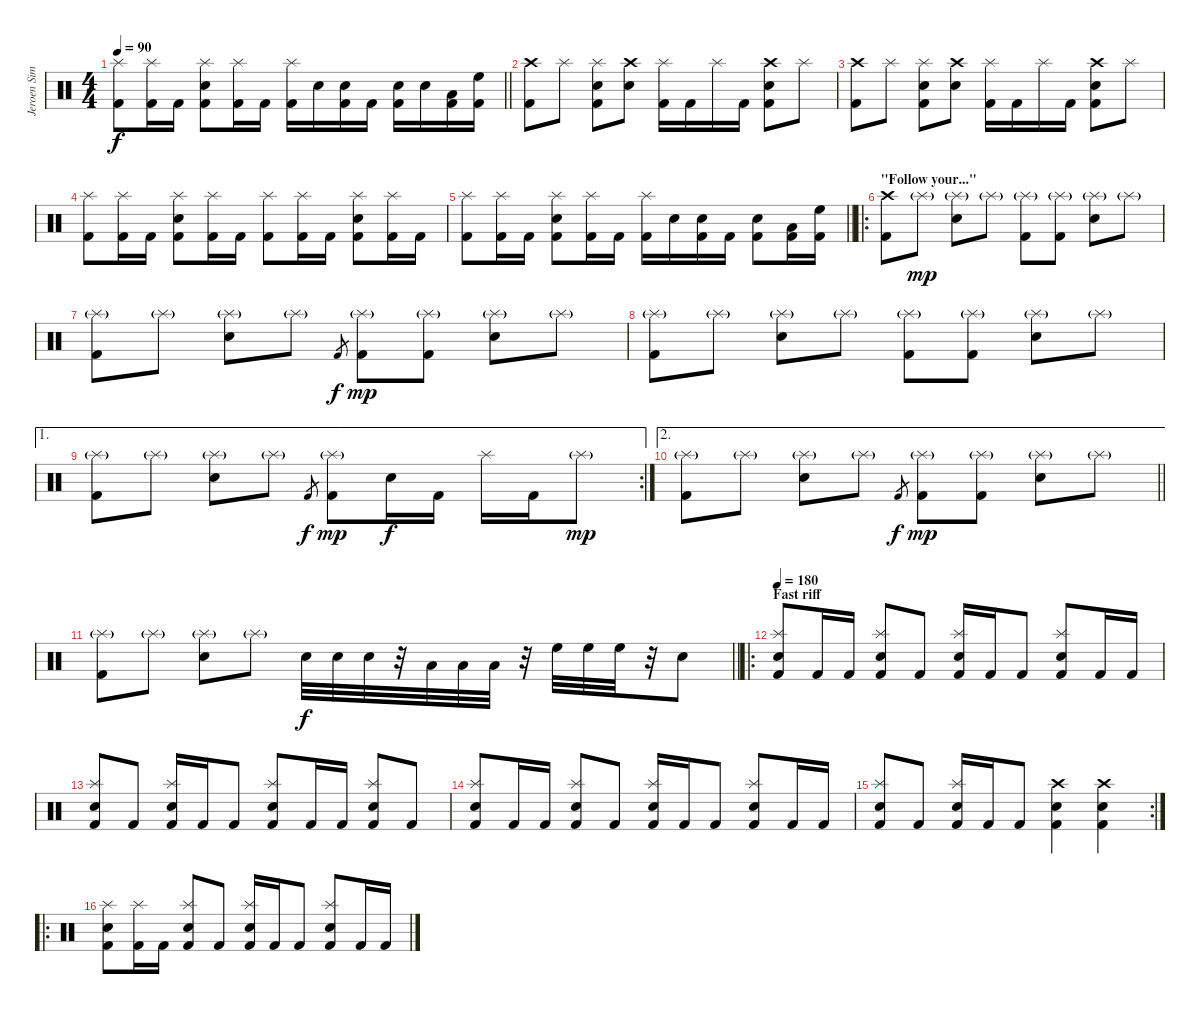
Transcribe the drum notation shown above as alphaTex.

\track ("Jeroen Simons" "Jeroen Sim") {instrument percussion}
\staff {score}
\articulation defaults
\ts (4 4)
\tempo 90
\clef neutral
\barLineRight lightlight
\ks c
("Kick (hit) 2" "Splash (hit)").8{dy f} ("Kick (hit) 2" "Splash (hit)").16 "Kick (hit) 2".16 ("Kick (hit) 2" "Snare (hit) 2" "Splash (hit)").8 ("Kick (hit) 2" "Splash (hit)").16 "Kick (hit) 2".16 ("Kick (hit) 2" "Splash (hit)").16 "Snare (hit) 2".16 ("Kick (hit) 2" "Snare (hit) 2").16 "Kick (hit) 2".16 ("Kick (hit) 2" "Snare (hit) 2").16 "Snare (hit) 2".16 ("Kick (hit) 2" "Low Tom (hit)").16 ("Kick (hit) 2" "High Floor Tom (hit)").16 |
("Kick (hit) 2" "Crash high (hit)").8 "Splash (hit)".8 ("Kick (hit) 2" "Snare (hit) 2" "Splash (hit)").8 ("Snare (hit) 2" "Crash high (hit)").8 ("Kick (hit) 2" "Splash (hit)").16 "Kick (hit) 2".16 "Splash (hit)".16 "Kick (hit) 2".16 ("Kick (hit) 2" "Snare (hit) 2" "Crash high (hit)").8 "Splash (hit)".8 |
("Kick (hit) 2" "Crash high (hit)").8 "Splash (hit)".8 ("Kick (hit) 2" "Snare (hit) 2" "Splash (hit)").8 ("Snare (hit) 2" "Crash high (hit)").8 ("Kick (hit) 2" "Splash (hit)").16 "Kick (hit) 2".16 "Splash (hit)".16 "Kick (hit) 2".16 ("Kick (hit) 2" "Snare (hit) 2" "Crash high (hit)").8 "Splash (hit)".8 |
("Kick (hit) 2" "Splash (hit)").8 ("Kick (hit) 2" "Splash (hit)").16 "Kick (hit) 2".16 ("Kick (hit) 2" "Snare (hit) 2" "Splash (hit)").8 ("Kick (hit) 2" "Splash (hit)").16 "Kick (hit) 2".16 ("Kick (hit) 2" "Splash (hit)").8 ("Kick (hit) 2" "Splash (hit)").16 "Kick (hit) 2".16 ("Kick (hit) 2" "Snare (hit) 2" "Splash (hit)").8 ("Kick (hit) 2" "Splash (hit)").16 "Kick (hit) 2".16 |
\barLineRight lightlight
("Kick (hit) 2" "Splash (hit)").8 ("Kick (hit) 2" "Splash (hit)").16 "Kick (hit) 2".16 ("Kick (hit) 2" "Snare (hit) 2" "Splash (hit)").8 ("Kick (hit) 2" "Splash (hit)").16 "Kick (hit) 2".16 ("Kick (hit) 2" "Splash (hit)").16 "Snare (hit) 2".16 ("Kick (hit) 2" "Snare (hit) 2").16 "Kick (hit) 2".16 ("Kick (hit) 2" "Snare (hit) 2").8 ("Kick (hit) 2" "Low Tom (hit)").16 ("Kick (hit) 2" "High Floor Tom (hit)").16 |
\ro
\section ("" "\"Follow your...\"")
("Kick (hit) 2" "Crash high (hit)").8 "Splash (hit)"{g}.8{dy mp} ("Snare (hit) 2" "Splash (hit)"{g}).8 "Splash (hit)"{g}.8 ("Kick (hit) 2" "Splash (hit)"{g}).8 ("Kick (hit) 2" "Splash (hit)"{g}).8 ("Snare (hit) 2" "Splash (hit)"{g}).8 "Splash (hit)"{g}.8 |
("Kick (hit) 2" "Splash (hit)"{g}).8 "Splash (hit)"{g}.8 ("Snare (hit) 2" "Splash (hit)"{g}).8 "Splash (hit)"{g}.8 "Kick (hit) 2".8{gr dy f} ("Kick (hit) 2" "Splash (hit)"{g}).8{dy mp} ("Kick (hit) 2" "Splash (hit)"{g}).8 ("Snare (hit) 2" "Splash (hit)"{g}).8 "Splash (hit)"{g}.8 |
("Kick (hit) 2" "Splash (hit)"{g}).8 "Splash (hit)"{g}.8 ("Snare (hit) 2" "Splash (hit)"{g}).8 "Splash (hit)"{g}.8 ("Kick (hit) 2" "Splash (hit)"{g}).8 ("Kick (hit) 2" "Splash (hit)"{g}).8 ("Snare (hit) 2" "Splash (hit)"{g}).8 "Splash (hit)"{g}.8 |
\ae 1
\rc 2
("Kick (hit) 2" "Splash (hit)"{g}).8 "Splash (hit)"{g}.8 ("Snare (hit) 2" "Splash (hit)"{g}).8 "Splash (hit)"{g}.8 "Kick (hit) 2".8{gr dy f} ("Kick (hit) 2" "Splash (hit)"{g}).8{dy mp} "Snare (hit) 2".16{dy f} "Kick (hit) 2".16 "Splash (hit)".16 "Kick (hit) 2".16 "Splash (hit)"{g}.8{dy mp} |
\ae 2
\barLineRight lightlight
("Kick (hit) 2" "Splash (hit)"{g}).8 "Splash (hit)"{g}.8 ("Snare (hit) 2" "Splash (hit)"{g}).8 "Splash (hit)"{g}.8 "Kick (hit) 2".8{gr dy f} ("Kick (hit) 2" "Splash (hit)"{g}).8{dy mp} ("Kick (hit) 2" "Splash (hit)"{g}).8 ("Snare (hit) 2" "Splash (hit)"{g}).8 "Splash (hit)"{g}.8 |
\barLineRight lightlight
("Kick (hit) 2" "Splash (hit)"{g}).8 "Splash (hit)"{g}.8 ("Snare (hit) 2" "Splash (hit)"{g}).8 "Splash (hit)"{g}.8 "Snare (hit) 2".32{dy f} "Snare (hit) 2".32 "Snare (hit) 2".32 r.32 "Low Tom (hit)".32 "Low Tom (hit)".32 "Low Tom (hit)".32 r.32 "High Floor Tom (hit)".32 "High Floor Tom (hit)".32 "High Floor Tom (hit)".32 r.32 "Snare (hit) 2".8 |
\ro
\section ("" "Fast riff")
\tempo 180
("Kick (hit) 2" "Snare (hit) 2" "Splash (hit)").8 "Kick (hit) 2".16 "Kick (hit) 2".16 ("Kick (hit) 2" "Snare (hit) 2" "Splash (hit)").8 "Kick (hit) 2".8 ("Kick (hit) 2" "Snare (hit) 2" "Splash (hit)").16 "Kick (hit) 2".16 "Kick (hit) 2".8 ("Kick (hit) 2" "Snare (hit) 2" "Splash (hit)").8 "Kick (hit) 2".16 "Kick (hit) 2".16 |
("Kick (hit) 2" "Snare (hit) 2" "Splash (hit)").8 "Kick (hit) 2".8 ("Kick (hit) 2" "Snare (hit) 2" "Splash (hit)").16 "Kick (hit) 2".16 "Kick (hit) 2".8 ("Kick (hit) 2" "Snare (hit) 2" "Splash (hit)").8 "Kick (hit) 2".16 "Kick (hit) 2".16 ("Kick (hit) 2" "Snare (hit) 2" "Splash (hit)").8 "Kick (hit) 2".8 |
("Kick (hit) 2" "Snare (hit) 2" "Splash (hit)").8 "Kick (hit) 2".16 "Kick (hit) 2".16 ("Kick (hit) 2" "Snare (hit) 2" "Splash (hit)").8 "Kick (hit) 2".8 ("Kick (hit) 2" "Snare (hit) 2" "Splash (hit)").16 "Kick (hit) 2".16 "Kick (hit) 2".8 ("Kick (hit) 2" "Snare (hit) 2" "Splash (hit)").8 "Kick (hit) 2".16 "Kick (hit) 2".16 |
\rc 2
("Kick (hit) 2" "Snare (hit) 2" "Splash (hit)").8 "Kick (hit) 2".8 ("Kick (hit) 2" "Snare (hit) 2" "Splash (hit)").16 "Kick (hit) 2".16 "Kick (hit) 2".8 ("Kick (hit) 2" "Snare (hit) 2" "Crash high (hit)").4 ("Kick (hit) 2" "Snare (hit) 2" "Crash high (hit)").4 |
\ro
("Kick (hit) 2" "Snare (hit) 2" "Splash (hit)").8 ("Kick (hit) 2" "Splash (hit)").16 "Kick (hit) 2".16 ("Kick (hit) 2" "Snare (hit) 2" "Splash (hit)").8 "Kick (hit) 2".8 ("Kick (hit) 2" "Snare (hit) 2" "Splash (hit)").16 "Kick (hit) 2".16 "Kick (hit) 2".8 ("Kick (hit) 2" "Snare (hit) 2" "Splash (hit)").8 "Kick (hit) 2".16 "Kick (hit) 2".16
